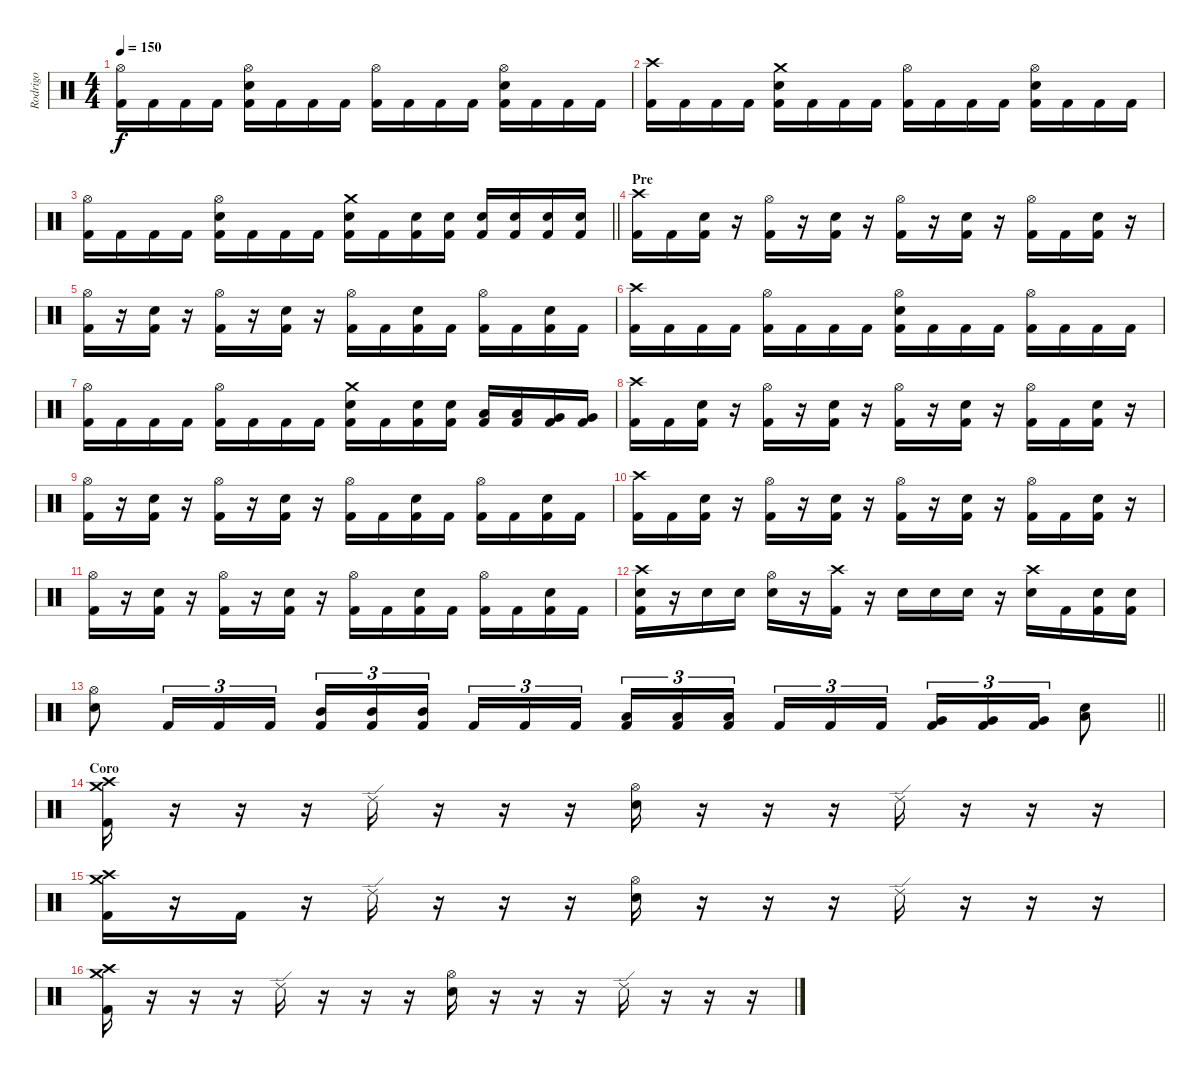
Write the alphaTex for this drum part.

\track ("Rodrigo" "Rodrigo") {instrument percussion}
\staff {score}
\articulation defaults
\ts (4 4)
\tempo 150
\clef neutral
\ks c
("Hi-Hat (open)" "Kick (hit) 2").16{dy f} "Kick (hit) 2".16 "Kick (hit) 2".16 "Kick (hit) 2".16 ("Hi-Hat (open)" "Electric Snare (hit)" "Kick (hit) 2").16 "Kick (hit) 2".16 "Kick (hit) 2".16 "Kick (hit) 2".16 ("Hi-Hat (open)" "Kick (hit) 2").16 "Kick (hit) 2".16 "Kick (hit) 2".16 "Kick (hit) 2".16 ("Hi-Hat (open)" "Electric Snare (hit)" "Kick (hit) 2").16 "Kick (hit) 2".16 "Kick (hit) 2".16 "Kick (hit) 2".16 |
("Crash high (hit)" "Kick (hit) 2").16 "Kick (hit) 2".16 "Kick (hit) 2".16 "Kick (hit) 2".16 ("Crash medium (hit)" "Electric Snare (hit)" "Kick (hit) 2").16 "Kick (hit) 2".16 "Kick (hit) 2".16 "Kick (hit) 2".16 ("Hi-Hat (open)" "Kick (hit) 2").16 "Kick (hit) 2".16 "Kick (hit) 2".16 "Kick (hit) 2".16 ("Hi-Hat (open)" "Electric Snare (hit)" "Kick (hit) 2").16 "Kick (hit) 2".16 "Kick (hit) 2".16 "Kick (hit) 2".16 |
\barLineRight lightlight
("Hi-Hat (open)" "Kick (hit) 2").16 "Kick (hit) 2".16 "Kick (hit) 2".16 "Kick (hit) 2".16 ("Hi-Hat (open)" "Electric Snare (hit)" "Kick (hit) 2").16 "Kick (hit) 2".16 "Kick (hit) 2".16 "Kick (hit) 2".16 ("Crash medium (hit)" "Electric Snare (hit)" "Kick (hit) 2").16 "Kick (hit) 2".16 ("Electric Snare (hit)" "Kick (hit) 2").16 ("Electric Snare (hit)" "Kick (hit) 2").16 ("Electric Snare (hit)" "Kick (hit) 2").16 ("Electric Snare (hit)" "Kick (hit) 2").16 ("Electric Snare (hit)" "Kick (hit) 2").16 ("Electric Snare (hit)" "Kick (hit) 2").16 |
\section ("" "Pre")
("Crash high (hit)" "Kick (hit) 2").16 "Kick (hit) 2".16 ("Electric Snare (hit)" "Kick (hit) 2").16 r.16 ("Hi-Hat (open)" "Kick (hit) 2").16 r.16 ("Electric Snare (hit)" "Kick (hit) 2").16 r.16 ("Hi-Hat (open)" "Kick (hit) 2").16 r.16 ("Electric Snare (hit)" "Kick (hit) 2").16 r.16 ("Hi-Hat (open)" "Kick (hit) 2").16 "Kick (hit) 2".16 ("Electric Snare (hit)" "Kick (hit) 2").16 r.16 |
("Hi-Hat (open)" "Kick (hit) 2").16 r.16 ("Electric Snare (hit)" "Kick (hit) 2").16 r.16 ("Hi-Hat (open)" "Kick (hit) 2").16 r.16 ("Electric Snare (hit)" "Kick (hit) 2").16 r.16 ("Hi-Hat (open)" "Kick (hit) 2").16 "Kick (hit) 2".16 ("Electric Snare (hit)" "Kick (hit) 2").16 "Kick (hit) 2".16 ("Hi-Hat (open)" "Kick (hit) 2").16 "Kick (hit) 2".16 ("Electric Snare (hit)" "Kick (hit) 2").16 "Kick (hit) 2".16 |
("Crash high (hit)" "Kick (hit) 2").16 "Kick (hit) 2".16 "Kick (hit) 2".16 "Kick (hit) 2".16 ("Hi-Hat (open)" "Kick (hit) 2").16 "Kick (hit) 2".16 "Kick (hit) 2".16 "Kick (hit) 2".16 ("Hi-Hat (open)" "Electric Snare (hit)" "Kick (hit) 2").16 "Kick (hit) 2".16 "Kick (hit) 2".16 "Kick (hit) 2".16 ("Hi-Hat (open)" "Kick (hit) 2").16 "Kick (hit) 2".16 "Kick (hit) 2".16 "Kick (hit) 2".16 |
("Hi-Hat (open)" "Kick (hit) 2").16 "Kick (hit) 2".16 "Kick (hit) 2".16 "Kick (hit) 2".16 ("Hi-Hat (open)" "Kick (hit) 2").16 "Kick (hit) 2".16 "Kick (hit) 2".16 "Kick (hit) 2".16 ("Crash medium (hit)" "Electric Snare (hit)" "Kick (hit) 2").16 "Kick (hit) 2".16 ("Electric Snare (hit)" "Kick (hit) 2").16 ("Electric Snare (hit)" "Kick (hit) 2").16 ("Low Tom (hit)" "Kick (hit) 2").16 ("Low Tom (hit)" "Kick (hit) 2").16 ("Very Low Tom (hit)" "Kick (hit) 2").16 ("Very Low Tom (hit)" "Kick (hit) 2").16 |
("Crash high (hit)" "Kick (hit) 2").16 "Kick (hit) 2".16 ("Electric Snare (hit)" "Kick (hit) 2").16 r.16 ("Hi-Hat (open)" "Kick (hit) 2").16 r.16 ("Electric Snare (hit)" "Kick (hit) 2").16 r.16 ("Hi-Hat (open)" "Kick (hit) 2").16 r.16 ("Electric Snare (hit)" "Kick (hit) 2").16 r.16 ("Hi-Hat (open)" "Kick (hit) 2").16 "Kick (hit) 2".16 ("Electric Snare (hit)" "Kick (hit) 2").16 r.16 |
("Hi-Hat (open)" "Kick (hit) 2").16 r.16 ("Electric Snare (hit)" "Kick (hit) 2").16 r.16 ("Hi-Hat (open)" "Kick (hit) 2").16 r.16 ("Electric Snare (hit)" "Kick (hit) 2").16 r.16 ("Hi-Hat (open)" "Kick (hit) 2").16 "Kick (hit) 2".16 ("Electric Snare (hit)" "Kick (hit) 2").16 "Kick (hit) 2".16 ("Hi-Hat (open)" "Kick (hit) 2").16 "Kick (hit) 2".16 ("Electric Snare (hit)" "Kick (hit) 2").16 "Kick (hit) 2".16 |
("Crash high (hit)" "Kick (hit) 2").16 "Kick (hit) 2".16 ("Electric Snare (hit)" "Kick (hit) 2").16 r.16 ("Hi-Hat (open)" "Kick (hit) 2").16 r.16 ("Electric Snare (hit)" "Kick (hit) 2").16 r.16 ("Hi-Hat (open)" "Kick (hit) 2").16 r.16 ("Electric Snare (hit)" "Kick (hit) 2").16 r.16 ("Hi-Hat (open)" "Kick (hit) 2").16 "Kick (hit) 2".16 ("Electric Snare (hit)" "Kick (hit) 2").16 r.16 |
("Hi-Hat (open)" "Kick (hit) 2").16 r.16 ("Electric Snare (hit)" "Kick (hit) 2").16 r.16 ("Hi-Hat (open)" "Kick (hit) 2").16 r.16 ("Electric Snare (hit)" "Kick (hit) 2").16 r.16 ("Hi-Hat (open)" "Kick (hit) 2").16 "Kick (hit) 2".16 ("Electric Snare (hit)" "Kick (hit) 2").16 "Kick (hit) 2".16 ("Hi-Hat (open)" "Kick (hit) 2").16 "Kick (hit) 2".16 ("Electric Snare (hit)" "Kick (hit) 2").16 "Kick (hit) 2".16 |
("Crash high (hit)" "Electric Snare (hit)" "Kick (hit) 2").16 r.16 "Electric Snare (hit)".16 "Electric Snare (hit)".16 ("Hi-Hat (open)" "Electric Snare (hit)").16 r.16 ("Crash high (hit)" "Kick (hit) 2").16 r.16 "Electric Snare (hit)".16 "Electric Snare (hit)".16 "Electric Snare (hit)".16 r.16 ("Crash high (hit)" "Electric Snare (hit)").16 "Kick (hit) 2".16 ("Electric Snare (hit)" "Kick (hit) 2").16 ("Electric Snare (hit)" "Kick (hit) 2").16 |
\barLineRight lightlight
("Hi-Hat (open)" "Electric Snare (hit)").8 "Kick (hit) 2".16{tu (3 2)} "Kick (hit) 2".16{tu (3 2)} "Kick (hit) 2".16{tu (3 2)} ("Mid Tom (hit)" "Kick (hit) 2").16{tu (3 2)} ("Mid Tom (hit)" "Kick (hit) 2").16{tu (3 2)} ("Mid Tom (hit)" "Kick (hit) 2").16{tu (3 2) beam splitsecondary} "Kick (hit) 2".16{tu (3 2)} "Kick (hit) 2".16{tu (3 2)} "Kick (hit) 2".16{tu (3 2)} ("Low Tom (hit)" "Kick (hit) 2").16{tu (3 2)} ("Low Tom (hit)" "Kick (hit) 2").16{tu (3 2)} ("Low Tom (hit)" "Kick (hit) 2").16{tu (3 2) beam splitsecondary} "Kick (hit) 2".16{tu (3 2)} "Kick (hit) 2".16{tu (3 2)} "Kick (hit) 2".16{tu (3 2)} ("Very Low Tom (hit)" "Kick (hit) 2").16{tu (3 2)} ("Very Low Tom (hit)" "Kick (hit) 2").16{tu (3 2)} ("Very Low Tom (hit)" "Kick (hit) 2").16{tu (3 2)} ("Low Floor Tom (hit)" "Electric Snare (hit)").8 |
\section ("" "Coro")
("Crash high (hit)" "Crash medium (hit)" "Kick (hit) 2").16 r.16 r.16 r.16 "Ride (edge) 2".16 r.16 r.16 r.16 ("Hi-Hat (open)" "Electric Snare (hit)").16 r.16 r.16 r.16 "Ride (edge) 2".16 r.16 r.16 r.16 |
("Crash high (hit)" "Crash medium (hit)" "Kick (hit) 2").16 r.16 "Kick (hit) 2".16 r.16 "Ride (edge) 2".16 r.16 r.16 r.16 ("Hi-Hat (open)" "Electric Snare (hit)").16 r.16 r.16 r.16 "Ride (edge) 2".16 r.16 r.16 r.16 |
("Crash high (hit)" "Crash medium (hit)" "Kick (hit) 2").16 r.16 r.16 r.16 "Ride (edge) 2".16 r.16 r.16 r.16 ("Hi-Hat (open)" "Electric Snare (hit)").16 r.16 r.16 r.16 "Ride (edge) 2".16 r.16 r.16 r.16
